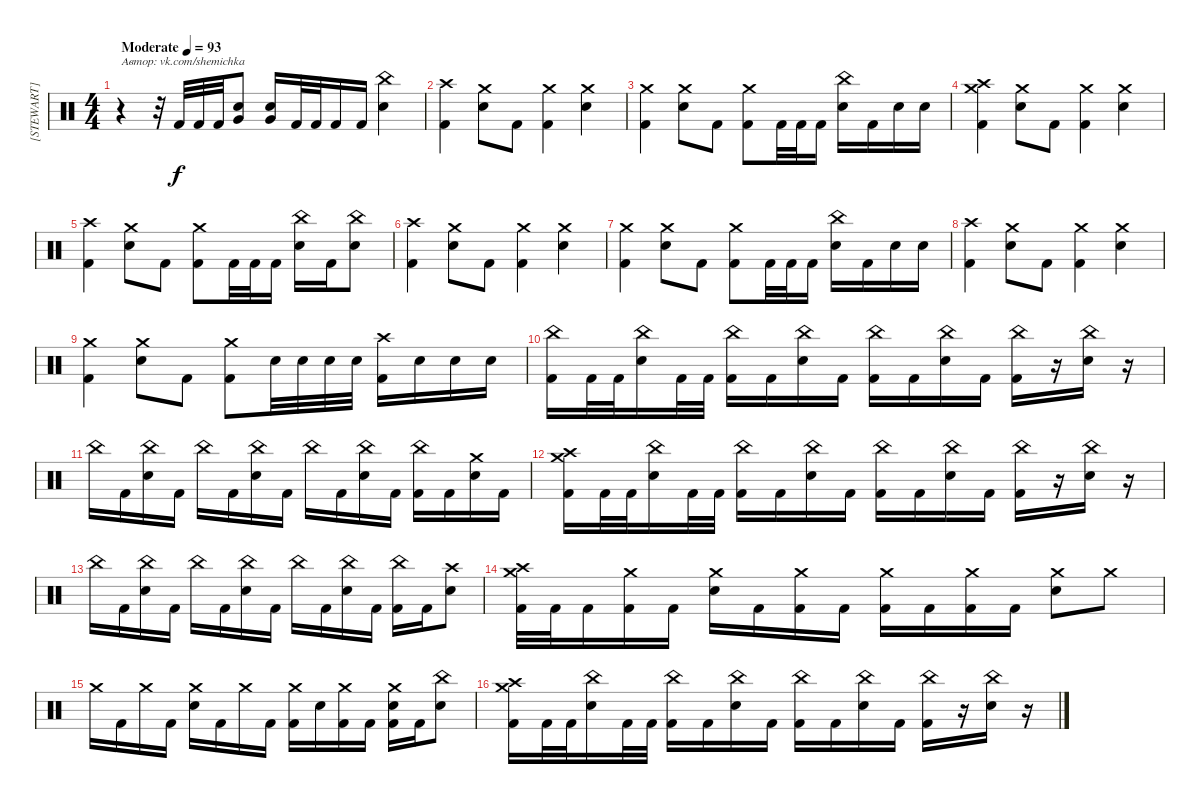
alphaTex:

\track ("[STEWART]" "[STEWART]") {instrument percussion}
\staff
\articulation defaults
\ts (4 4)
\tempo (93 "Moderate")
\clef neutral
\ks c
r.4{txt "Автор: vk.com/shemichka" dy f} r.32 "Kick (hit) 2".32 "Kick (hit) 2".32 "Kick (hit) 2".32 ("Snare (hit) 2" "Very Low Tom (hit)").8 ("Snare (hit) 2" "Very Low Tom (hit)").16 "Kick (hit) 2".32 "Kick (hit) 2".32 "Kick (hit) 2".16 "Kick (hit) 2".16 ("China (hit)" "Snare (hit) 2").4 |
("Crash high (hit)" "Kick (hit) 2").4 ("Crash medium (hit)" "Snare (hit) 2").8 "Kick (hit) 2".8 ("Crash medium (hit)" "Kick (hit) 2").4 ("Crash medium (hit)" "Snare (hit) 2").4 |
("Crash medium (hit)" "Kick (hit) 2").4 ("Crash medium (hit)" "Snare (hit) 2").8 "Kick (hit) 2".8 ("Crash medium (hit)" "Kick (hit) 2").8 "Kick (hit) 2".32 "Kick (hit) 2".32 "Kick (hit) 2".16 ("China (hit)" "Snare (hit) 2").16 "Kick (hit) 2".16 "Snare (hit) 2".16 "Snare (hit) 2".16 |
("Crash high (hit)" "Crash medium (hit)" "Kick (hit) 2").4 ("Crash medium (hit)" "Snare (hit) 2").8 "Kick (hit) 2".8 ("Crash medium (hit)" "Kick (hit) 2").4 ("Crash medium (hit)" "Snare (hit) 2").4 |
("Crash high (hit)" "Kick (hit) 2").4 ("Crash medium (hit)" "Snare (hit) 2").8 "Kick (hit) 2".8 ("Crash medium (hit)" "Kick (hit) 2").8 "Kick (hit) 2".32 "Kick (hit) 2".32 "Kick (hit) 2".16 ("China (hit)" "Snare (hit) 2").16 "Kick (hit) 2".16 ("China (hit)" "Snare (hit) 2").8 |
("Crash high (hit)" "Kick (hit) 2").4 ("Crash medium (hit)" "Snare (hit) 2").8 "Kick (hit) 2".8 ("Crash medium (hit)" "Kick (hit) 2").4 ("Crash medium (hit)" "Snare (hit) 2").4 |
("Crash medium (hit)" "Kick (hit) 2").4 ("Crash medium (hit)" "Snare (hit) 2").8 "Kick (hit) 2".8 ("Crash medium (hit)" "Kick (hit) 2").8 "Kick (hit) 2".32 "Kick (hit) 2".32 "Kick (hit) 2".16 ("China (hit)" "Snare (hit) 2").16 "Kick (hit) 2".16 "Snare (hit) 2".16 "Snare (hit) 2".16 |
("Crash high (hit)" "Kick (hit) 2").4 ("Crash medium (hit)" "Snare (hit) 2").8 "Kick (hit) 2".8 ("Crash medium (hit)" "Kick (hit) 2").4 ("Crash medium (hit)" "Snare (hit) 2").4 |
("Crash medium (hit)" "Kick (hit) 2").4 ("Crash medium (hit)" "Snare (hit) 2").8 "Kick (hit) 2".8 ("Crash medium (hit)" "Kick (hit) 2").8 "Snare (hit) 2".32 "Snare (hit) 2".32 "Snare (hit) 2".32 "Snare (hit) 2".32 ("Crash high (hit)" "Kick (hit) 2").16 "Snare (hit) 2".16 "Snare (hit) 2".16 "Snare (hit) 2".16 |
("China (hit)" "Kick (hit) 2").16 "Kick (hit) 2".32 "Kick (hit) 2".32 ("China (hit)" "Snare (hit) 2").16 "Kick (hit) 2".32 "Kick (hit) 2".32 ("China (hit)" "Kick (hit) 2").16 "Kick (hit) 2".16 ("China (hit)" "Snare (hit) 2").16 "Kick (hit) 2".16 ("China (hit)" "Kick (hit) 2").16 "Kick (hit) 2".16 ("China (hit)" "Snare (hit) 2").16 "Kick (hit) 2".16 ("China (hit)" "Kick (hit) 2").16 r.16 ("China (hit)" "Snare (hit) 2").16 r.16 |
"China (hit)".16 "Kick (hit) 2".16 ("China (hit)" "Snare (hit) 2").16 "Kick (hit) 2".16 "China (hit)".16 "Kick (hit) 2".16 ("China (hit)" "Snare (hit) 2").16 "Kick (hit) 2".16 "China (hit)".16 "Kick (hit) 2".16 ("China (hit)" "Snare (hit) 2").16 "Kick (hit) 2".16 ("China (hit)" "Kick (hit) 2").16 "Kick (hit) 2".16 ("Crash medium (hit)" "Snare (hit) 2").16 "Kick (hit) 2".16 |
("Crash high (hit)" "Crash medium (hit)" "Kick (hit) 2").16 "Kick (hit) 2".32 "Kick (hit) 2".32 ("China (hit)" "Snare (hit) 2").16 "Kick (hit) 2".32 "Kick (hit) 2".32 ("China (hit)" "Kick (hit) 2").16 "Kick (hit) 2".16 ("China (hit)" "Snare (hit) 2").16 "Kick (hit) 2".16 ("China (hit)" "Kick (hit) 2").16 "Kick (hit) 2".16 ("China (hit)" "Snare (hit) 2").16 "Kick (hit) 2".16 ("China (hit)" "Kick (hit) 2").16 r.16 ("China (hit)" "Snare (hit) 2").16 r.16 |
"China (hit)".16 "Kick (hit) 2".16 ("China (hit)" "Snare (hit) 2").16 "Kick (hit) 2".16 "China (hit)".16 "Kick (hit) 2".16 ("China (hit)" "Snare (hit) 2").16 "Kick (hit) 2".16 "China (hit)".16 "Kick (hit) 2".16 ("China (hit)" "Snare (hit) 2").16 "Kick (hit) 2".16 ("China (hit)" "Kick (hit) 2").16 "Kick (hit) 2".16 ("Crash high (hit)" "Snare (hit) 2").8 |
("Crash high (hit)" "Crash medium (hit)" "Kick (hit) 2").32 "Kick (hit) 2".32 "Kick (hit) 2".16 ("Crash medium (hit)" "Kick (hit) 2").16 "Kick (hit) 2".16 ("Crash medium (hit)" "Snare (hit) 2").16 "Kick (hit) 2".16 ("Crash medium (hit)" "Kick (hit) 2").16 "Kick (hit) 2".16 ("Crash medium (hit)" "Kick (hit) 2").16 "Kick (hit) 2".16 ("Crash medium (hit)" "Kick (hit) 2").16 "Kick (hit) 2".16 ("Crash medium (hit)" "Snare (hit) 2").8 "Crash medium (hit)".8 |
"Crash medium (hit)".16 "Kick (hit) 2".16 "Crash medium (hit)".16 "Kick (hit) 2".16 ("Crash medium (hit)" "Snare (hit) 2").16 "Kick (hit) 2".16 "Crash medium (hit)".16 "Kick (hit) 2".16 ("Crash medium (hit)" "Kick (hit) 2").16 "Snare (hit) 2".16 ("Crash medium (hit)" "Kick (hit) 2").16 "Kick (hit) 2".16 ("Crash medium (hit)" "Snare (hit) 2" "Kick (hit) 2").16 "Kick (hit) 2".16 ("China (hit)" "Snare (hit) 2").8 |
("Crash high (hit)" "Crash medium (hit)" "Kick (hit) 2").16 "Kick (hit) 2".32 "Kick (hit) 2".32 ("China (hit)" "Snare (hit) 2").16 "Kick (hit) 2".32 "Kick (hit) 2".32 ("China (hit)" "Kick (hit) 2").16 "Kick (hit) 2".16 ("China (hit)" "Snare (hit) 2").16 "Kick (hit) 2".16 ("China (hit)" "Kick (hit) 2").16 "Kick (hit) 2".16 ("China (hit)" "Snare (hit) 2").16 "Kick (hit) 2".16 ("China (hit)" "Kick (hit) 2").16 r.16 ("China (hit)" "Snare (hit) 2").16 r.16
